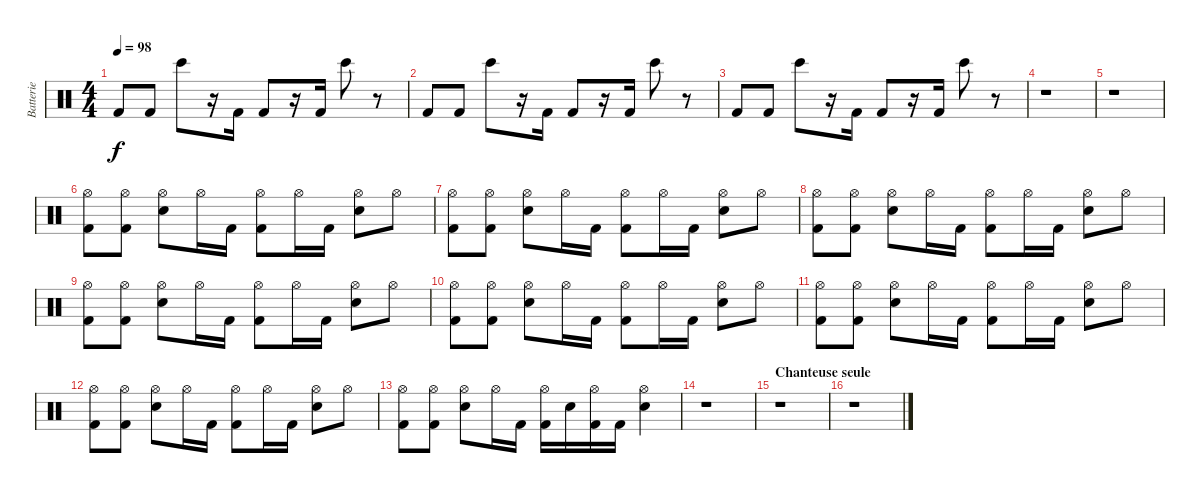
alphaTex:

\track ("Batterie" "Batterie") {instrument percussion}
\staff {score}
\articulation defaults
\ts (4 4)
\tempo 98
\clef neutral
\ks c "Kick (hit) 2".8{dy f} "Kick (hit) 2".8 "Bongo High (hit)".8
r.16 "Kick (hit) 2".16 "Kick (hit) 2".8 r.16 "Kick (hit) 2".16 "Bongo High (hit)".8 r.8 |
"Kick (hit) 2".8 "Kick (hit) 2".8 "Bongo High (hit)".8 r.16 "Kick (hit) 2".16 "Kick (hit) 2".8 r.16 "Kick (hit) 2".16 "Bongo High (hit)".8 r.8 |
"Kick (hit) 2".8 "Kick (hit) 2".8 "Bongo High (hit)".8 r.16 "Kick (hit) 2".16 "Kick (hit) 2".8 r.16 "Kick (hit) 2".16 "Bongo High (hit)".8 r.8 |
r.1 |
r.1 |
("Hi-Hat (open)" "Kick (hit) 2").8 ("Hi-Hat (open)" "Kick (hit) 2").8 ("Hi-Hat (open)" "Snare (hit) 2").8 "Hi-Hat (open)".16 "Kick (hit) 2".16 ("Hi-Hat (open)" "Kick (hit) 2").8 "Hi-Hat (open)".16 "Kick (hit) 2".16 ("Hi-Hat (open)" "Snare (hit) 2").8 "Hi-Hat (open)".8 |
("Hi-Hat (open)" "Kick (hit) 2").8 ("Hi-Hat (open)" "Kick (hit) 2").8 ("Hi-Hat (open)" "Snare (hit) 2").8 "Hi-Hat (open)".16 "Kick (hit) 2".16 ("Hi-Hat (open)" "Kick (hit) 2").8 "Hi-Hat (open)".16 "Kick (hit) 2".16 ("Hi-Hat (open)" "Snare (hit) 2").8 "Hi-Hat (open)".8 |
("Hi-Hat (open)" "Kick (hit) 2").8 ("Hi-Hat (open)" "Kick (hit) 2").8 ("Hi-Hat (open)" "Snare (hit) 2").8 "Hi-Hat (open)".16 "Kick (hit) 2".16 ("Hi-Hat (open)" "Kick (hit) 2").8 "Hi-Hat (open)".16 "Kick (hit) 2".16 ("Hi-Hat (open)" "Snare (hit) 2").8 "Hi-Hat (open)".8 |
("Hi-Hat (open)" "Kick (hit) 2").8 ("Hi-Hat (open)" "Kick (hit) 2").8 ("Hi-Hat (open)" "Snare (hit) 2").8 "Hi-Hat (open)".16 "Kick (hit) 2".16 ("Hi-Hat (open)" "Kick (hit) 2").8 "Hi-Hat (open)".16 "Kick (hit) 2".16 ("Hi-Hat (open)" "Snare (hit) 2").8 "Hi-Hat (open)".8 |
("Hi-Hat (open)" "Kick (hit) 2").8 ("Hi-Hat (open)" "Kick (hit) 2").8 ("Hi-Hat (open)" "Snare (hit) 2").8 "Hi-Hat (open)".16 "Kick (hit) 2".16 ("Hi-Hat (open)" "Kick (hit) 2").8 "Hi-Hat (open)".16 "Kick (hit) 2".16 ("Hi-Hat (open)" "Snare (hit) 2").8 "Hi-Hat (open)".8 |
("Hi-Hat (open)" "Kick (hit) 2").8 ("Hi-Hat (open)" "Kick (hit) 2").8 ("Hi-Hat (open)" "Snare (hit) 2").8 "Hi-Hat (open)".16 "Kick (hit) 2".16 ("Hi-Hat (open)" "Kick (hit) 2").8 "Hi-Hat (open)".16 "Kick (hit) 2".16 ("Hi-Hat (open)" "Snare (hit) 2").8 "Hi-Hat (open)".8 |
("Hi-Hat (open)" "Kick (hit) 2").8 ("Hi-Hat (open)" "Kick (hit) 2").8 ("Hi-Hat (open)" "Snare (hit) 2").8 "Hi-Hat (open)".16 "Kick (hit) 2".16 ("Hi-Hat (open)" "Kick (hit) 2").8 "Hi-Hat (open)".16 "Kick (hit) 2".16 ("Hi-Hat (open)" "Snare (hit) 2").8 "Hi-Hat (open)".8 |
("Hi-Hat (open)" "Kick (hit) 2").8 ("Hi-Hat (open)" "Kick (hit) 2").8 ("Hi-Hat (open)" "Snare (hit) 2").8 "Hi-Hat (open)".16 "Kick (hit) 2".16 ("Hi-Hat (open)" "Kick (hit) 2").16 "Snare (hit) 2".16 ("Hi-Hat (open)" "Kick (hit) 2").16 "Kick (hit) 2".16 ("Hi-Hat (open)" "Snare (hit) 2").4 |
r.1 |
\section ("" "Chanteuse seule")
r.1 |
r.1
